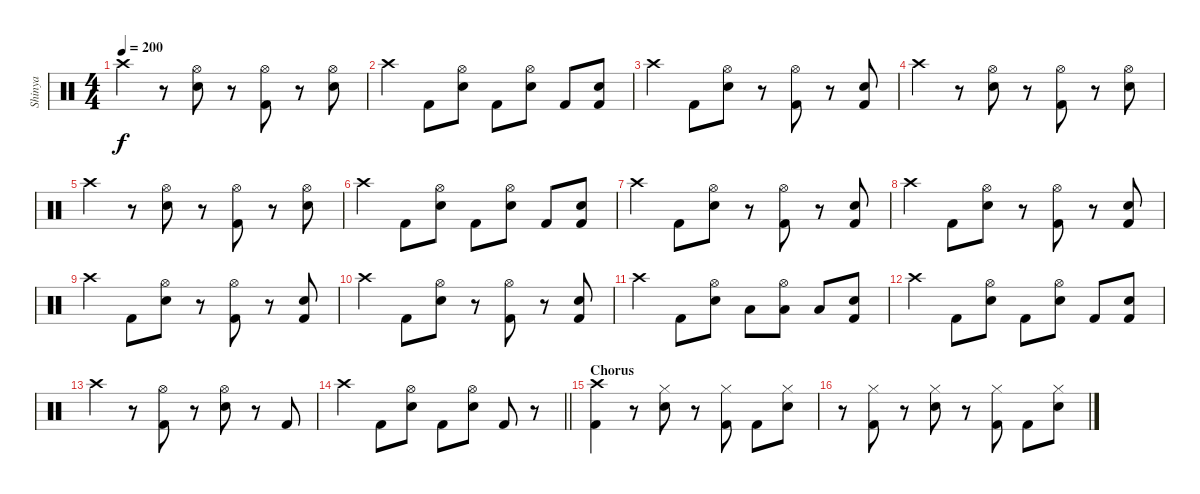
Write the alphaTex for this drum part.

\track ("Shinya" "Shinya") {instrument percussion}
\staff {score}
\articulation defaults
\ts (4 4)
\tempo 200
\clef neutral
\ks c "Crash high (hit)".4{dy f}
r.8 ("Hi-Hat (open)" "Electric Snare (hit)").8 r.8 ("Hi-Hat (open)" "Kick (hit) 2").8 r.8 ("Hi-Hat (open)" "Electric Snare (hit)").8 |
"Crash high (hit)".4 "Kick (hit) 2".8 ("Electric Snare (hit)" "Hi-Hat (open)").8 "Kick (hit) 2".8 ("Electric Snare (hit)" "Hi-Hat (open)").8 "Kick (hit) 2".8 ("Electric Snare (hit)" "Kick (hit) 2").8 |
"Crash high (hit)".4 "Kick (hit) 2".8 ("Electric Snare (hit)" "Hi-Hat (open)").8 r.8 ("Kick (hit) 2" "Hi-Hat (open)").8 r.8 ("Electric Snare (hit)" "Kick (hit) 2").8 |
"Crash high (hit)".4 r.8 ("Hi-Hat (open)" "Electric Snare (hit)").8 r.8 ("Hi-Hat (open)" "Kick (hit) 2").8 r.8 ("Hi-Hat (open)" "Electric Snare (hit)").8 |
"Crash high (hit)".4 r.8 ("Hi-Hat (open)" "Electric Snare (hit)").8 r.8 ("Hi-Hat (open)" "Kick (hit) 2").8 r.8 ("Hi-Hat (open)" "Electric Snare (hit)").8 |
"Crash high (hit)".4 "Kick (hit) 2".8 ("Electric Snare (hit)" "Hi-Hat (open)").8 "Kick (hit) 2".8 ("Electric Snare (hit)" "Hi-Hat (open)").8 "Kick (hit) 2".8 ("Electric Snare (hit)" "Kick (hit) 2").8 |
"Crash high (hit)".4 "Kick (hit) 2".8 ("Electric Snare (hit)" "Hi-Hat (open)").8 r.8 ("Kick (hit) 2" "Hi-Hat (open)").8 r.8 ("Electric Snare (hit)" "Kick (hit) 2").8 |
"Crash high (hit)".4 "Kick (hit) 2".8 ("Electric Snare (hit)" "Hi-Hat (open)").8 r.8 ("Kick (hit) 2" "Hi-Hat (open)").8 r.8 ("Electric Snare (hit)" "Kick (hit) 2").8 |
"Crash high (hit)".4 "Kick (hit) 2".8 ("Electric Snare (hit)" "Hi-Hat (open)").8 r.8 ("Kick (hit) 2" "Hi-Hat (open)").8 r.8 ("Electric Snare (hit)" "Kick (hit) 2").8 |
"Crash high (hit)".4 "Kick (hit) 2".8 ("Electric Snare (hit)" "Hi-Hat (open)").8 r.8 ("Kick (hit) 2" "Hi-Hat (open)").8 r.8 ("Electric Snare (hit)" "Kick (hit) 2").8 |
"Crash high (hit)".4 "Kick (hit) 2".8 ("Electric Snare (hit)" "Hi-Hat (open)").8 "Low Tom (hit)".8 ("Low Tom (hit)" "Hi-Hat (open)").8 "Low Tom (hit)".8 ("Electric Snare (hit)" "Kick (hit) 2").8 |
"Crash high (hit)".4 "Kick (hit) 2".8 ("Electric Snare (hit)" "Hi-Hat (open)").8 "Kick (hit) 2".8 ("Electric Snare (hit)" "Hi-Hat (open)").8 "Kick (hit) 2".8 ("Electric Snare (hit)" "Kick (hit) 2").8 |
"Crash high (hit)".4 r.8 ("Kick (hit) 2" "Hi-Hat (open)").8 r.8 ("Electric Snare (hit)" "Hi-Hat (open)").8 r.8 "Kick (hit) 2".8 |
\barLineRight lightlight "Crash high (hit)".4 "Kick (hit) 2".8
("Electric Snare (hit)" "Hi-Hat (open)").8 "Kick (hit) 2".8 ("Electric Snare (hit)" "Hi-Hat (open)").8 "Kick (hit) 2".8 r.8 |
\section ("" "Chorus")
("Kick (hit) 2" "Crash high (hit)").4 r.8 ("Electric Snare (hit)" "Hi-Hat (closed)").8 r.8 ("Kick (hit) 2" "Hi-Hat (closed)").8 "Kick (hit) 2".8 ("Electric Snare (hit)" "Hi-Hat (closed)").8 |
r.8 ("Kick (hit) 2" "Hi-Hat (closed)").8 r.8 ("Electric Snare (hit)" "Hi-Hat (closed)").8 r.8 ("Kick (hit) 2" "Hi-Hat (closed)").8 "Kick (hit) 2".8 ("Electric Snare (hit)" "Hi-Hat (closed)").8
